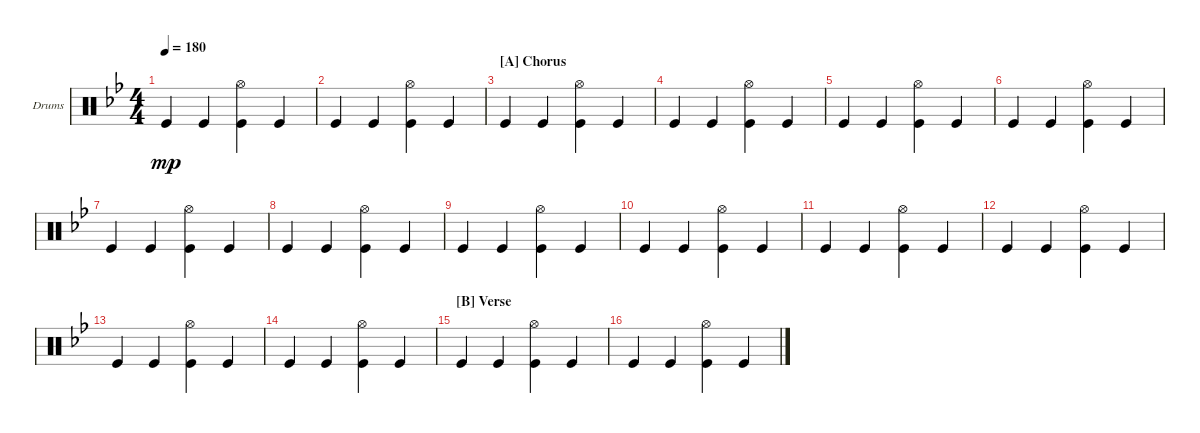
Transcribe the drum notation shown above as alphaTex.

\defaultSystemsLayout 4
\bracketExtendMode groupsimilarinstruments
\firstSystemTrackNameOrientation horizontal
\otherSystemsTrackNameOrientation horizontal
\track ("Drumkit" "Drums") {instrument percussion}
\staff {score}
\articulation defaults
\ts (4 4)
\tempo 180
\clef neutral
\ks bb "Kick (hit)".4{dy mp} "Kick (hit)".4
("Kick (hit)" "Hi-Hat (open)").4 "Kick (hit)".4 |
"Kick (hit)".4 "Kick (hit)".4 ("Kick (hit)" "Hi-Hat (open)").4 "Kick (hit)".4 |
\section ("A" "Chorus")
"Kick (hit)".4 "Kick (hit)".4 ("Kick (hit)" "Hi-Hat (open)").4 "Kick (hit)".4 |
"Kick (hit)".4 "Kick (hit)".4 ("Kick (hit)" "Hi-Hat (open)").4 "Kick (hit)".4 |
"Kick (hit)".4 "Kick (hit)".4 ("Kick (hit)" "Hi-Hat (open)").4 "Kick (hit)".4 |
"Kick (hit)".4 "Kick (hit)".4 ("Kick (hit)" "Hi-Hat (open)").4 "Kick (hit)".4 |
"Kick (hit)".4 "Kick (hit)".4 ("Kick (hit)" "Hi-Hat (open)").4 "Kick (hit)".4 |
"Kick (hit)".4 "Kick (hit)".4 ("Kick (hit)" "Hi-Hat (open)").4 "Kick (hit)".4 |
"Kick (hit)".4 "Kick (hit)".4 ("Kick (hit)" "Hi-Hat (open)").4 "Kick (hit)".4 |
"Kick (hit)".4 "Kick (hit)".4 ("Kick (hit)" "Hi-Hat (open)").4 "Kick (hit)".4 |
"Kick (hit)".4 "Kick (hit)".4 ("Kick (hit)" "Hi-Hat (open)").4 "Kick (hit)".4 |
"Kick (hit)".4 "Kick (hit)".4 ("Kick (hit)" "Hi-Hat (open)").4 "Kick (hit)".4 |
"Kick (hit)".4 "Kick (hit)".4 ("Kick (hit)" "Hi-Hat (open)").4 "Kick (hit)".4 |
"Kick (hit)".4 "Kick (hit)".4 ("Kick (hit)" "Hi-Hat (open)").4 "Kick (hit)".4 |
\section ("B" "Verse")
"Kick (hit)".4 "Kick (hit)".4 ("Kick (hit)" "Hi-Hat (open)").4 "Kick (hit)".4 |
"Kick (hit)".4 "Kick (hit)".4 ("Kick (hit)" "Hi-Hat (open)").4 "Kick (hit)".4
